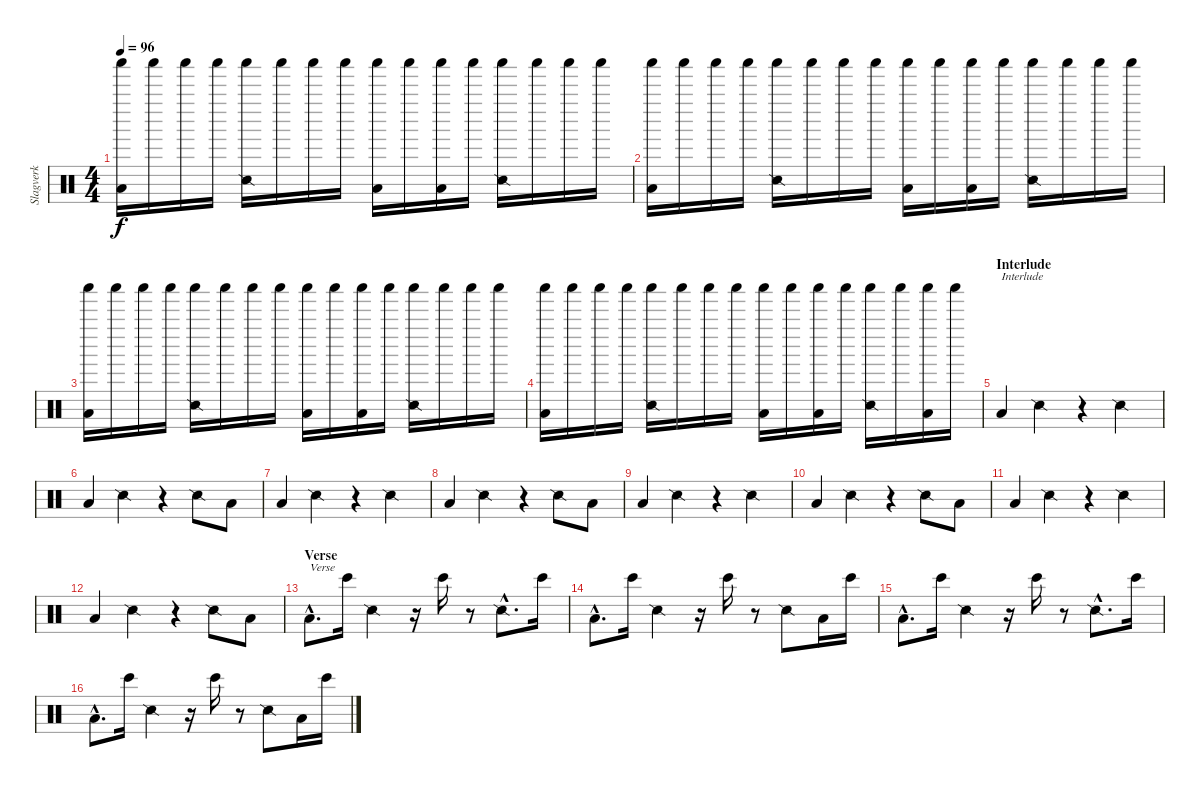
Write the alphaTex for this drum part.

\track ("Slagverk" "Slagverk") {instrument percussion}
\staff {score}
\articulation defaults
\ts (4 4)
\tempo 96
\clef neutral
\ks c
("Shaker (hit)" "Low Floor Tom (hit)").16{dy f} "Shaker (hit)".16 "Shaker (hit)".16 "Shaker (hit)".16 ("Shaker (hit)" "Snare (side stick) 2").16 "Shaker (hit)".16 "Shaker (hit)".16 "Shaker (hit)".16 ("Shaker (hit)" "Low Floor Tom (hit)").16 "Shaker (hit)".16 ("Shaker (hit)" "Low Floor Tom (hit)").16 "Shaker (hit)".16 ("Shaker (hit)" "Snare (side stick) 2").16 "Shaker (hit)".16 "Shaker (hit)".16 "Shaker (hit)".16 |
("Shaker (hit)" "Low Floor Tom (hit)").16 "Shaker (hit)".16 "Shaker (hit)".16 "Shaker (hit)".16 ("Shaker (hit)" "Snare (side stick) 2").16 "Shaker (hit)".16 "Shaker (hit)".16 "Shaker (hit)".16 ("Shaker (hit)" "Low Floor Tom (hit)").16 "Shaker (hit)".16 ("Shaker (hit)" "Low Floor Tom (hit)").16 "Shaker (hit)".16 ("Shaker (hit)" "Snare (side stick) 2").16 "Shaker (hit)".16 "Shaker (hit)".16 "Shaker (hit)".16 |
("Shaker (hit)" "Low Floor Tom (hit)").16 "Shaker (hit)".16 "Shaker (hit)".16 "Shaker (hit)".16 ("Shaker (hit)" "Snare (side stick) 2").16 "Shaker (hit)".16 "Shaker (hit)".16 "Shaker (hit)".16 ("Shaker (hit)" "Low Floor Tom (hit)").16 "Shaker (hit)".16 ("Shaker (hit)" "Low Floor Tom (hit)").16 "Shaker (hit)".16 ("Shaker (hit)" "Snare (side stick) 2").16 "Shaker (hit)".16 "Shaker (hit)".16 "Shaker (hit)".16 |
("Shaker (hit)" "Low Floor Tom (hit)").16 "Shaker (hit)".16 "Shaker (hit)".16 "Shaker (hit)".16 ("Shaker (hit)" "Snare (side stick) 2").16 "Shaker (hit)".16 "Shaker (hit)".16 "Shaker (hit)".16 ("Shaker (hit)" "Low Floor Tom (hit)").16 "Shaker (hit)".16 ("Shaker (hit)" "Low Floor Tom (hit)").16 "Shaker (hit)".16 ("Shaker (hit)" "Snare (side stick) 2").16 "Shaker (hit)".16 ("Shaker (hit)" "Low Floor Tom (hit)").16 "Shaker (hit)".16 |
\section ("" "Interlude")
"Low Floor Tom (hit)".4{txt "Interlude"} "Snare (side stick) 2".4 r.4 "Snare (side stick) 2".4 |
"Low Floor Tom (hit)".4 "Snare (side stick) 2".4 r.4 "Snare (side stick) 2".8 "Low Floor Tom (hit)".8 |
"Low Floor Tom (hit)".4 "Snare (side stick) 2".4 r.4 "Snare (side stick) 2".4 |
"Low Floor Tom (hit)".4 "Snare (side stick) 2".4 r.4 "Snare (side stick) 2".8 "Low Floor Tom (hit)".8 |
"Low Floor Tom (hit)".4 "Snare (side stick) 2".4 r.4 "Snare (side stick) 2".4 |
"Low Floor Tom (hit)".4 "Snare (side stick) 2".4 r.4 "Snare (side stick) 2".8 "Low Floor Tom (hit)".8 |
"Low Floor Tom (hit)".4 "Snare (side stick) 2".4 r.4 "Snare (side stick) 2".4 |
"Low Floor Tom (hit)".4 "Snare (side stick) 2".4 r.4 "Snare (side stick) 2".8 "Low Floor Tom (hit)".8 |
\section ("" "Verse")
"Low Floor Tom (hit)"{hac}.8{d txt "Verse"} "Bongo High (hit)".16 "Snare (side stick) 2".4 r.16 "Bongo High (hit)".16 r.8 "Snare (side stick) 2"{hac}.8{d} "Bongo High (hit)".16 |
"Low Floor Tom (hit)"{hac}.8{d} "Bongo High (hit)".16 "Snare (side stick) 2".4 r.16 "Bongo High (hit)".16 r.8 "Snare (side stick) 2".8 "Low Floor Tom (hit)".16 "Bongo High (hit)".16 |
"Low Floor Tom (hit)"{hac}.8{d} "Bongo High (hit)".16 "Snare (side stick) 2".4 r.16 "Bongo High (hit)".16 r.8 "Snare (side stick) 2"{hac}.8{d} "Bongo High (hit)".16 |
"Low Floor Tom (hit)"{hac}.8{d} "Bongo High (hit)".16 "Snare (side stick) 2".4 r.16 "Bongo High (hit)".16 r.8 "Snare (side stick) 2".8 "Low Floor Tom (hit)".16 "Bongo High (hit)".16
